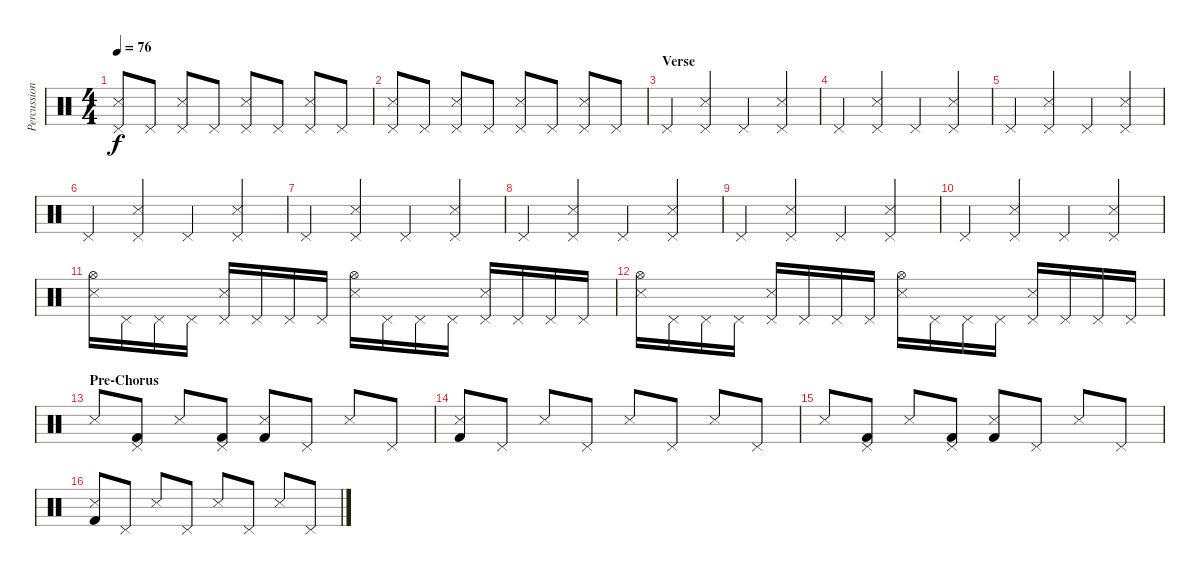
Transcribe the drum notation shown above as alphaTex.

\track ("Percussions" "Percussion") {instrument percussion}
\staff {score}
\articulation defaults
\ts (4 4)
\tempo 76
\clef neutral
\ks c
("Snare (side stick) 3" "Pedal Hi-Hat (hit)").8{dy f} "Pedal Hi-Hat (hit)".8 ("Snare (side stick) 3" "Pedal Hi-Hat (hit)").8 "Pedal Hi-Hat (hit)".8 ("Snare (side stick) 3" "Pedal Hi-Hat (hit)").8 "Pedal Hi-Hat (hit)".8 ("Snare (side stick) 3" "Pedal Hi-Hat (hit)").8 "Pedal Hi-Hat (hit)".8 |
("Snare (side stick) 3" "Pedal Hi-Hat (hit)").8 "Pedal Hi-Hat (hit)".8 ("Snare (side stick) 3" "Pedal Hi-Hat (hit)").8 "Pedal Hi-Hat (hit)".8 ("Snare (side stick) 3" "Pedal Hi-Hat (hit)").8 "Pedal Hi-Hat (hit)".8 ("Snare (side stick) 3" "Pedal Hi-Hat (hit)").8 "Pedal Hi-Hat (hit)".8 |
\section ("" "Verse")
"Pedal Hi-Hat (hit)".4 ("Snare (side stick) 3" "Pedal Hi-Hat (hit)").4 "Pedal Hi-Hat (hit)".4 ("Snare (side stick) 3" "Pedal Hi-Hat (hit)").4 |
"Pedal Hi-Hat (hit)".4 ("Snare (side stick) 3" "Pedal Hi-Hat (hit)").4 "Pedal Hi-Hat (hit)".4 ("Snare (side stick) 3" "Pedal Hi-Hat (hit)").4 |
"Pedal Hi-Hat (hit)".4 ("Snare (side stick) 3" "Pedal Hi-Hat (hit)").4 "Pedal Hi-Hat (hit)".4 ("Snare (side stick) 3" "Pedal Hi-Hat (hit)").4 |
"Pedal Hi-Hat (hit)".4 ("Snare (side stick) 3" "Pedal Hi-Hat (hit)").4 "Pedal Hi-Hat (hit)".4 ("Snare (side stick) 3" "Pedal Hi-Hat (hit)").4 |
"Pedal Hi-Hat (hit)".4 ("Snare (side stick) 3" "Pedal Hi-Hat (hit)").4 "Pedal Hi-Hat (hit)".4 ("Snare (side stick) 3" "Pedal Hi-Hat (hit)").4 |
"Pedal Hi-Hat (hit)".4 ("Snare (side stick) 3" "Pedal Hi-Hat (hit)").4 "Pedal Hi-Hat (hit)".4 ("Snare (side stick) 3" "Pedal Hi-Hat (hit)").4 |
"Pedal Hi-Hat (hit)".4 ("Snare (side stick) 3" "Pedal Hi-Hat (hit)").4 "Pedal Hi-Hat (hit)".4 ("Snare (side stick) 3" "Pedal Hi-Hat (hit)").4 |
"Pedal Hi-Hat (hit)".4 ("Snare (side stick) 3" "Pedal Hi-Hat (hit)").4 "Pedal Hi-Hat (hit)".4 ("Snare (side stick) 3" "Pedal Hi-Hat (hit)").4 |
("Snare (side stick) 3" "Hi-Hat (open)").16 "Pedal Hi-Hat (hit)".16 "Pedal Hi-Hat (hit)".16 "Pedal Hi-Hat (hit)".16 ("Snare (side stick) 3" "Pedal Hi-Hat (hit)").16 "Pedal Hi-Hat (hit)".16 "Pedal Hi-Hat (hit)".16 "Pedal Hi-Hat (hit)".16 ("Snare (side stick) 3" "Hi-Hat (open)").16 "Pedal Hi-Hat (hit)".16 "Pedal Hi-Hat (hit)".16 "Pedal Hi-Hat (hit)".16 ("Snare (side stick) 3" "Pedal Hi-Hat (hit)").16 "Pedal Hi-Hat (hit)".16 "Pedal Hi-Hat (hit)".16 "Pedal Hi-Hat (hit)".16 |
("Snare (side stick) 3" "Hi-Hat (open)").16 "Pedal Hi-Hat (hit)".16 "Pedal Hi-Hat (hit)".16 "Pedal Hi-Hat (hit)".16 ("Snare (side stick) 3" "Pedal Hi-Hat (hit)").16 "Pedal Hi-Hat (hit)".16 "Pedal Hi-Hat (hit)".16 "Pedal Hi-Hat (hit)".16 ("Snare (side stick) 3" "Hi-Hat (open)").16 "Pedal Hi-Hat (hit)".16 "Pedal Hi-Hat (hit)".16 "Pedal Hi-Hat (hit)".16 ("Snare (side stick) 3" "Pedal Hi-Hat (hit)").16 "Pedal Hi-Hat (hit)".16 "Pedal Hi-Hat (hit)".16 "Pedal Hi-Hat (hit)".16 |
\section ("" "Pre-Chorus")
"Snare (side stick) 3".8 ("Pedal Hi-Hat (hit)" "Kick (hit) 2").8 "Snare (side stick) 3".8 ("Pedal Hi-Hat (hit)" "Kick (hit) 2").8 ("Snare (side stick) 3" "Kick (hit) 2").8 "Pedal Hi-Hat (hit)".8 "Snare (side stick) 3".8 "Pedal Hi-Hat (hit)".8 |
("Snare (side stick) 3" "Kick (hit) 2").8 "Pedal Hi-Hat (hit)".8 "Snare (side stick) 3".8 "Pedal Hi-Hat (hit)".8 "Snare (side stick) 3".8 "Pedal Hi-Hat (hit)".8 "Snare (side stick) 3".8 "Pedal Hi-Hat (hit)".8 |
"Snare (side stick) 3".8 ("Pedal Hi-Hat (hit)" "Kick (hit) 2").8 "Snare (side stick) 3".8 ("Pedal Hi-Hat (hit)" "Kick (hit) 2").8 ("Snare (side stick) 3" "Kick (hit) 2").8 "Pedal Hi-Hat (hit)".8 "Snare (side stick) 3".8 "Pedal Hi-Hat (hit)".8 |
("Snare (side stick) 3" "Kick (hit) 2").8 "Pedal Hi-Hat (hit)".8 "Snare (side stick) 3".8 "Pedal Hi-Hat (hit)".8 "Snare (side stick) 3".8 "Pedal Hi-Hat (hit)".8 "Snare (side stick) 3".8 "Pedal Hi-Hat (hit)".8
